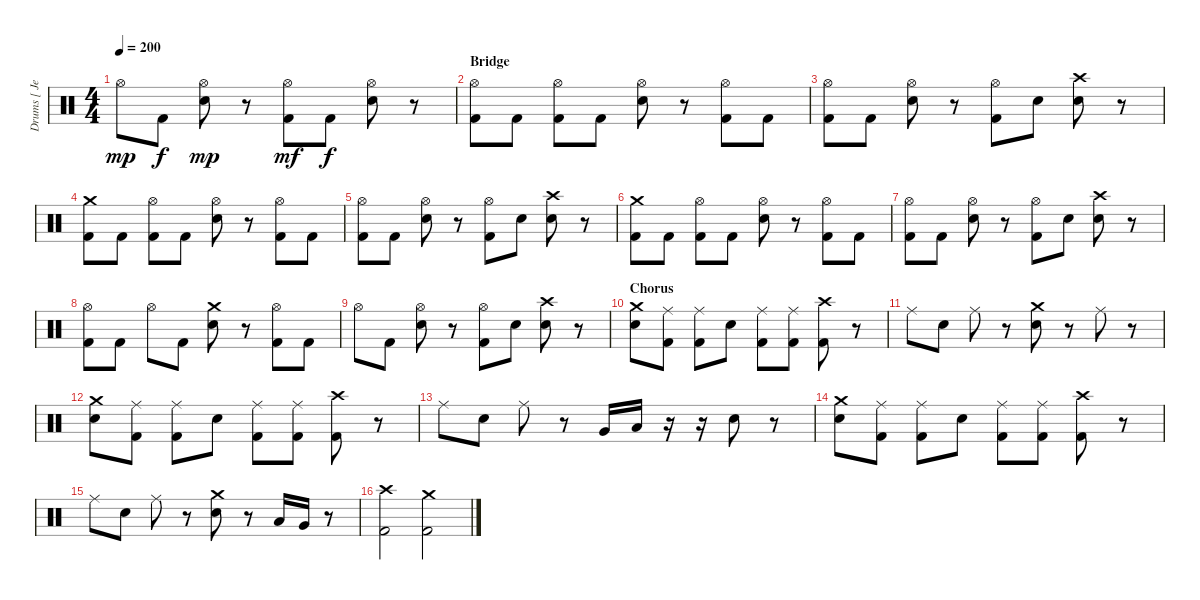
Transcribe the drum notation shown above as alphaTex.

\track ("Drums [ Jesse Ingelevics ]" "Drums [ Je") {instrument percussion}
\staff {score}
\articulation defaults
\ts (4 4)
\tempo 200
\clef neutral
\ks c "Hi-Hat (open)".8{dy mp} "Kick (hit) 2".8{dy f}
("Hi-Hat (open)" "Electric Snare (hit)").8{dy mp} r.8 ("Hi-Hat (open)" "Kick (hit) 2").8{dy mf} "Kick (hit) 2".8{dy f} ("Hi-Hat (open)" "Electric Snare (hit)").8 r.8 |
\section ("" "Bridge")
("Hi-Hat (open)" "Kick (hit) 2").8 "Kick (hit) 2".8 ("Hi-Hat (open)" "Kick (hit) 2").8 "Kick (hit) 2".8 ("Hi-Hat (open)" "Electric Snare (hit)").8 r.8 ("Hi-Hat (open)" "Kick (hit) 2").8 "Kick (hit) 2".8 |
("Hi-Hat (open)" "Kick (hit) 2").8 "Kick (hit) 2".8 ("Hi-Hat (open)" "Electric Snare (hit)").8 r.8 ("Hi-Hat (open)" "Kick (hit) 2").8 "Electric Snare (hit)".8 ("Crash high (hit)" "Electric Snare (hit)").8 r.8 |
("Crash medium (hit)" "Kick (hit) 2").8 "Kick (hit) 2".8 ("Hi-Hat (open)" "Kick (hit) 2").8 "Kick (hit) 2".8 ("Hi-Hat (open)" "Electric Snare (hit)").8 r.8 ("Hi-Hat (open)" "Kick (hit) 2").8 "Kick (hit) 2".8 |
("Hi-Hat (open)" "Kick (hit) 2").8 "Kick (hit) 2".8 ("Hi-Hat (open)" "Electric Snare (hit)").8 r.8 ("Hi-Hat (open)" "Kick (hit) 2").8 "Electric Snare (hit)".8 ("Crash high (hit)" "Electric Snare (hit)").8 r.8 |
("Crash medium (hit)" "Kick (hit) 2").8 "Kick (hit) 2".8 ("Hi-Hat (open)" "Kick (hit) 2").8 "Kick (hit) 2".8 ("Hi-Hat (open)" "Electric Snare (hit)").8 r.8 ("Hi-Hat (open)" "Kick (hit) 2").8 "Kick (hit) 2".8 |
("Hi-Hat (open)" "Kick (hit) 2").8 "Kick (hit) 2".8 ("Hi-Hat (open)" "Electric Snare (hit)").8 r.8 ("Hi-Hat (open)" "Kick (hit) 2").8 "Electric Snare (hit)".8 ("Crash high (hit)" "Electric Snare (hit)").8 r.8 |
("Hi-Hat (open)" "Kick (hit) 2").8 "Kick (hit) 2".8 "Hi-Hat (open)".8 "Kick (hit) 2".8 ("Crash medium (hit)" "Electric Snare (hit)").8 r.8 ("Hi-Hat (open)" "Kick (hit) 2").8 "Kick (hit) 2".8 |
"Hi-Hat (open)".8 "Kick (hit) 2".8 ("Hi-Hat (open)" "Electric Snare (hit)").8 r.8 ("Hi-Hat (open)" "Kick (hit) 2").8 "Electric Snare (hit)".8 ("Crash high (hit)" "Electric Snare (hit)").8 r.8 |
\section ("" "Chorus")
("Crash medium (hit)" "Electric Snare (hit)").8 ("Ride (middle)" "Kick (hit) 2").8 ("Ride (middle)" "Kick (hit) 2").8 "Electric Snare (hit)".8 ("Ride (middle)" "Kick (hit) 2").8 ("Ride (middle)" "Kick (hit) 2").8 ("Crash high (hit)" "Kick (hit) 2").8 r.8 |
"Ride (middle)".8 "Electric Snare (hit)".8 "Ride (middle)".8 r.8 ("Crash medium (hit)" "Electric Snare (hit)").8 r.8 "Ride (middle)".8 r.8 |
("Crash medium (hit)" "Electric Snare (hit)").8 ("Ride (middle)" "Kick (hit) 2").8 ("Ride (middle)" "Kick (hit) 2").8 "Electric Snare (hit)".8 ("Ride (middle)" "Kick (hit) 2").8 ("Ride (middle)" "Kick (hit) 2").8 ("Crash high (hit)" "Kick (hit) 2").8 r.8 |
"Ride (middle)".8 "Electric Snare (hit)".8 "Ride (middle)".8 r.8 "Very Low Tom (hit)".16 "Low Floor Tom (hit)".16 r.16 r.16 "Electric Snare (hit)".8 r.8 |
("Crash medium (hit)" "Electric Snare (hit)").8 ("Ride (middle)" "Kick (hit) 2").8 ("Ride (middle)" "Kick (hit) 2").8 "Electric Snare (hit)".8 ("Ride (middle)" "Kick (hit) 2").8 ("Ride (middle)" "Kick (hit) 2").8 ("Crash high (hit)" "Kick (hit) 2").8 r.8 |
"Ride (middle)".8 "Electric Snare (hit)".8 "Ride (middle)".8 r.8 ("Crash medium (hit)" "Electric Snare (hit)").8 r.8 "Low Floor Tom (hit)".16 "Very Low Tom (hit)".16 r.8 |
("Crash high (hit)" "Kick (hit) 2").2 ("Crash medium (hit)" "Kick (hit) 2").2
